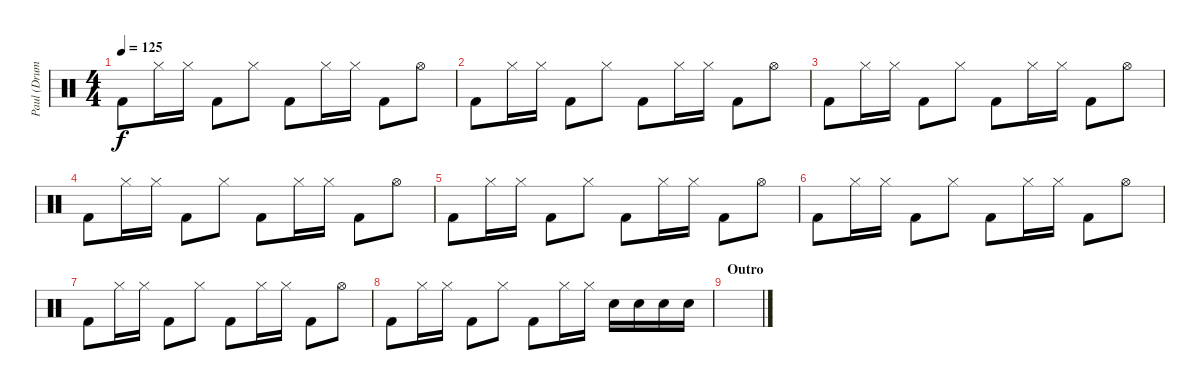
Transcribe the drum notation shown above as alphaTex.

\track ("Paul (Drums)" "Paul (Drum") {instrument percussion}
\staff {score}
\articulation defaults
\ts (4 4)
\tempo 125
\clef neutral
\ks c "Kick (hit) 2".8{dy f} "Hi-Hat (closed)".16 "Hi-Hat (closed)".16 "Kick (hit) 2".8 "Hi-Hat (closed)".8 "Kick (hit) 2".8 "Hi-Hat (closed)".16 "Hi-Hat (closed)".16 "Kick (hit) 2".8 "Hi-Hat (open)".8
|
"Kick (hit) 2".8 "Hi-Hat (closed)".16 "Hi-Hat (closed)".16 "Kick (hit) 2".8 "Hi-Hat (closed)".8 "Kick (hit) 2".8 "Hi-Hat (closed)".16 "Hi-Hat (closed)".16 "Kick (hit) 2".8 "Hi-Hat (open)".8 |
"Kick (hit) 2".8 "Hi-Hat (closed)".16 "Hi-Hat (closed)".16 "Kick (hit) 2".8 "Hi-Hat (closed)".8 "Kick (hit) 2".8 "Hi-Hat (closed)".16 "Hi-Hat (closed)".16 "Kick (hit) 2".8 "Hi-Hat (open)".8 |
"Kick (hit) 2".8 "Hi-Hat (closed)".16 "Hi-Hat (closed)".16 "Kick (hit) 2".8 "Hi-Hat (closed)".8 "Kick (hit) 2".8 "Hi-Hat (closed)".16 "Hi-Hat (closed)".16 "Kick (hit) 2".8 "Hi-Hat (open)".8 |
"Kick (hit) 2".8 "Hi-Hat (closed)".16 "Hi-Hat (closed)".16 "Kick (hit) 2".8 "Hi-Hat (closed)".8 "Kick (hit) 2".8 "Hi-Hat (closed)".16 "Hi-Hat (closed)".16 "Kick (hit) 2".8 "Hi-Hat (open)".8 |
"Kick (hit) 2".8 "Hi-Hat (closed)".16 "Hi-Hat (closed)".16 "Kick (hit) 2".8 "Hi-Hat (closed)".8 "Kick (hit) 2".8 "Hi-Hat (closed)".16 "Hi-Hat (closed)".16 "Kick (hit) 2".8 "Hi-Hat (open)".8 |
"Kick (hit) 2".8 "Hi-Hat (closed)".16 "Hi-Hat (closed)".16 "Kick (hit) 2".8 "Hi-Hat (closed)".8 "Kick (hit) 2".8 "Hi-Hat (closed)".16 "Hi-Hat (closed)".16 "Kick (hit) 2".8 "Hi-Hat (open)".8 |
"Kick (hit) 2".8 "Hi-Hat (closed)".16 "Hi-Hat (closed)".16 "Kick (hit) 2".8 "Hi-Hat (closed)".8 "Kick (hit) 2".8 "Hi-Hat (closed)".16 "Hi-Hat (closed)".16 "Snare (hit) 2".16 "Snare (hit) 2".16 "Snare (hit) 2".16 "Snare (hit) 2".16 |
\section ("" "Outro")
